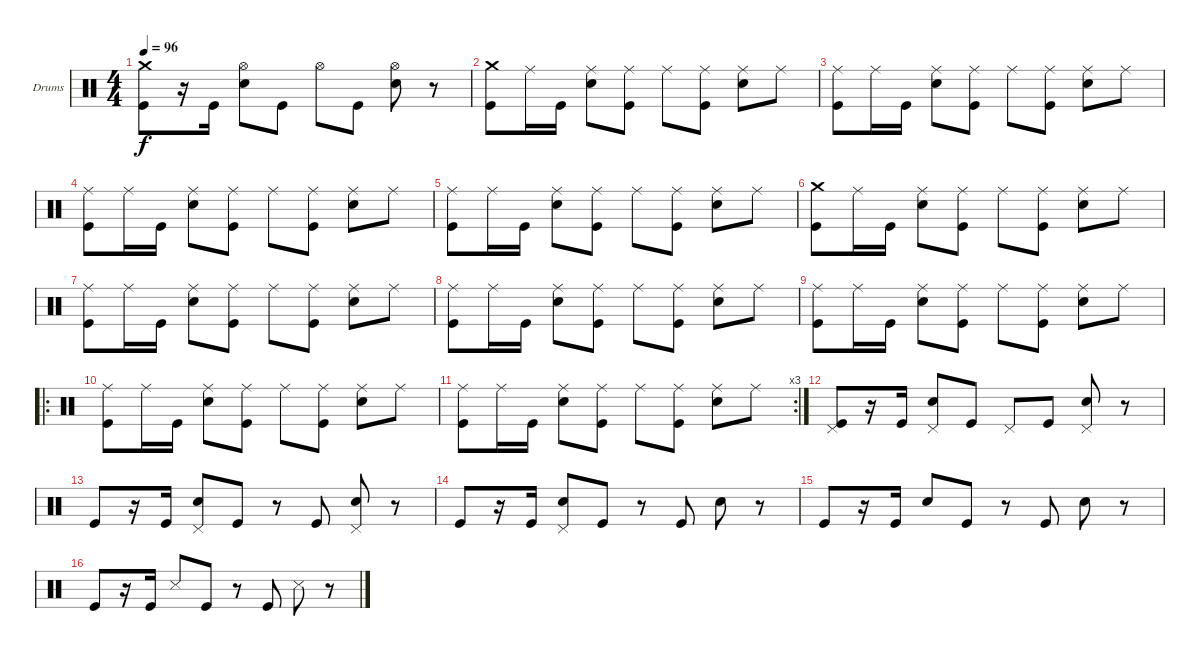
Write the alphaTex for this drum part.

\defaultSystemsLayout 4
\bracketExtendMode nobrackets
\firstSystemTrackNameOrientation horizontal
\otherSystemsTrackNameOrientation horizontal
\track ("Dave Abbruzzese" "Drums") {solo instrument percussion}
\staff {score}
\articulation defaults
\ts (4 4)
\tempo 96
\clef neutral
\ks c
("Crash medium (hit)" "Kick (hit)").8{dy f} r.16 "Kick (hit)".16 ("Hi-Hat (open)" "Snare (hit) 2").8 "Kick (hit)".8 "Hi-Hat (open)".8 "Kick (hit)".8 ("Hi-Hat (open)" "Snare (hit) 2").8 r.8 |
("Crash medium (hit)" "Kick (hit)").8 "Ride (middle)".16 "Kick (hit)".16 ("Ride (middle)" "Snare (hit) 2").8 ("Ride (middle)" "Kick (hit)").8 "Ride (middle)".8 ("Ride (middle)" "Kick (hit)").8 ("Ride (middle)" "Snare (hit) 2").8 "Ride (middle)".8 |
("Ride (middle)" "Kick (hit)").8 "Ride (middle)".16 "Kick (hit)".16 ("Ride (middle)" "Snare (hit) 2").8 ("Ride (middle)" "Kick (hit)").8 "Ride (middle)".8 ("Ride (middle)" "Kick (hit)").8 ("Ride (middle)" "Snare (hit) 2").8 "Ride (middle)".8 |
("Ride (middle)" "Kick (hit)").8 "Ride (middle)".16 "Kick (hit)".16 ("Ride (middle)" "Snare (hit) 2").8 ("Ride (middle)" "Kick (hit)").8 "Ride (middle)".8 ("Ride (middle)" "Kick (hit)").8 ("Ride (middle)" "Snare (hit) 2").8 "Ride (middle)".8 |
("Ride (middle)" "Kick (hit)").8 "Ride (middle)".16 "Kick (hit)".16 ("Ride (middle)" "Snare (hit) 2").8 ("Ride (middle)" "Kick (hit)").8 "Ride (middle)".8 ("Ride (middle)" "Kick (hit)").8 ("Ride (middle)" "Snare (hit) 2").8 "Ride (middle)".8 |
("Crash medium (hit)" "Kick (hit)").8 "Ride (middle)".16 "Kick (hit)".16 ("Ride (middle)" "Snare (hit) 2").8 ("Ride (middle)" "Kick (hit)").8 "Ride (middle)".8 ("Ride (middle)" "Kick (hit)").8 ("Ride (middle)" "Snare (hit) 2").8 "Ride (middle)".8 |
("Ride (middle)" "Kick (hit)").8 "Ride (middle)".16 "Kick (hit)".16 ("Ride (middle)" "Snare (hit) 2").8 ("Ride (middle)" "Kick (hit)").8 "Ride (middle)".8 ("Ride (middle)" "Kick (hit)").8 ("Ride (middle)" "Snare (hit) 2").8 "Ride (middle)".8 |
("Ride (middle)" "Kick (hit)").8 "Ride (middle)".16 "Kick (hit)".16 ("Ride (middle)" "Snare (hit) 2").8 ("Ride (middle)" "Kick (hit)").8 "Ride (middle)".8 ("Ride (middle)" "Kick (hit)").8 ("Ride (middle)" "Snare (hit) 2").8 "Ride (middle)".8 |
("Ride (middle)" "Kick (hit)").8 "Ride (middle)".16 "Kick (hit)".16 ("Ride (middle)" "Snare (hit) 2").8 ("Ride (middle)" "Kick (hit)").8 "Ride (middle)".8 ("Ride (middle)" "Kick (hit)").8 ("Ride (middle)" "Snare (hit) 2").8 "Ride (middle)".8 |
\ro
("Ride (middle)" "Kick (hit)").8 "Ride (middle)".16 "Kick (hit)".16 ("Ride (middle)" "Snare (hit) 2").8 ("Ride (middle)" "Kick (hit)").8 "Ride (middle)".8 ("Ride (middle)" "Kick (hit)").8 ("Ride (middle)" "Snare (hit) 2").8 "Ride (middle)".8 |
\rc 3
("Ride (middle)" "Kick (hit)").8 "Ride (middle)".16 "Kick (hit)".16 ("Ride (middle)" "Snare (hit) 2").8 ("Ride (middle)" "Kick (hit)").8 "Ride (middle)".8 ("Ride (middle)" "Kick (hit)").8 ("Ride (middle)" "Snare (hit) 2").8 "Ride (middle)".8 |
("Pedal Hi-Hat (hit)" "Kick (hit)").8 r.16 "Kick (hit)".16 ("Pedal Hi-Hat (hit)" "Snare (hit) 2").8 "Kick (hit)".8 "Pedal Hi-Hat (hit)".8 "Kick (hit)".8 ("Pedal Hi-Hat (hit)" "Snare (hit) 2").8 r.8 |
"Kick (hit)".8 r.16 "Kick (hit)".16 ("Pedal Hi-Hat (hit)" "Snare (hit) 2").8 "Kick (hit)".8 r.8 "Kick (hit)".8 ("Pedal Hi-Hat (hit)" "Snare (hit) 2").8 r.8 |
"Kick (hit)".8 r.16 "Kick (hit)".16 ("Pedal Hi-Hat (hit)" "Snare (hit) 2").8 "Kick (hit)".8 r.8 "Kick (hit)".8 "Snare (hit) 2".8 r.8 |
"Kick (hit)".8 r.16 "Kick (hit)".16 "Snare (hit) 2".8 "Kick (hit)".8 r.8 "Kick (hit)".8 "Snare (hit) 2".8 r.8 |
"Kick (hit)".8 r.16 "Kick (hit)".16 "Snare (side stick) 3".8 "Kick (hit)".8 r.8 "Kick (hit)".8 "Snare (side stick) 3".8 r.8
